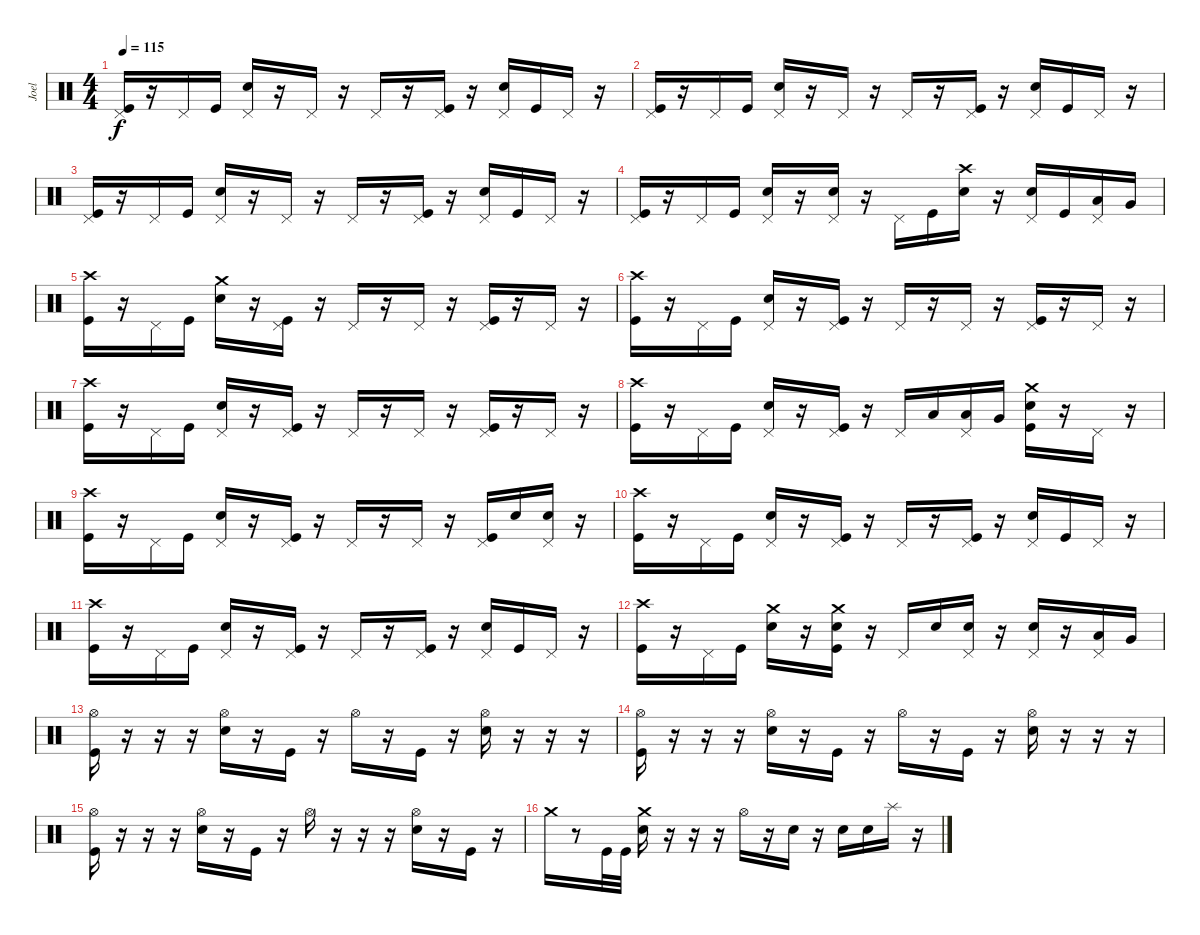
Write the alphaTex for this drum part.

\track ("Joel" "Joel") {instrument percussion}
\staff {score}
\articulation defaults
\ts (4 4)
\tempo 115
\clef neutral
\ks c
("Pedal Hi-Hat (hit)" "Kick (hit)").16{dy f} r.16 "Pedal Hi-Hat (hit)".16 "Kick (hit)".16 ("Pedal Hi-Hat (hit)" "Electric Snare (hit)").16 r.16 "Pedal Hi-Hat (hit)".16 r.16 "Pedal Hi-Hat (hit)".16 r.16 ("Pedal Hi-Hat (hit)" "Kick (hit)").16 r.16 ("Pedal Hi-Hat (hit)" "Electric Snare (hit)").16 "Kick (hit)".16 "Pedal Hi-Hat (hit)".16 r.16 |
("Pedal Hi-Hat (hit)" "Kick (hit)").16 r.16 "Pedal Hi-Hat (hit)".16 "Kick (hit)".16 ("Pedal Hi-Hat (hit)" "Electric Snare (hit)").16 r.16 "Pedal Hi-Hat (hit)".16 r.16 "Pedal Hi-Hat (hit)".16 r.16 ("Pedal Hi-Hat (hit)" "Kick (hit)").16 r.16 ("Pedal Hi-Hat (hit)" "Electric Snare (hit)").16 "Kick (hit)".16 "Pedal Hi-Hat (hit)".16 r.16 |
("Pedal Hi-Hat (hit)" "Kick (hit)").16 r.16 "Pedal Hi-Hat (hit)".16 "Kick (hit)".16 ("Pedal Hi-Hat (hit)" "Electric Snare (hit)").16 r.16 "Pedal Hi-Hat (hit)".16 r.16 "Pedal Hi-Hat (hit)".16 r.16 ("Pedal Hi-Hat (hit)" "Kick (hit)").16 r.16 ("Pedal Hi-Hat (hit)" "Electric Snare (hit)").16 "Kick (hit)".16 "Pedal Hi-Hat (hit)".16 r.16 |
("Pedal Hi-Hat (hit)" "Kick (hit)").16 r.16 "Pedal Hi-Hat (hit)".16 "Kick (hit)".16 ("Pedal Hi-Hat (hit)" "Electric Snare (hit)").16 r.16 ("Pedal Hi-Hat (hit)" "Electric Snare (hit)").16 r.16 "Pedal Hi-Hat (hit)".16 "Kick (hit)".16 ("Crash high (hit)" "Electric Snare (hit)").16 r.16 ("Pedal Hi-Hat (hit)" "Electric Snare (hit)").16 "Kick (hit)".16 ("Pedal Hi-Hat (hit)" "Low Tom (hit)").16 "Very Low Tom (hit)".16 |
("Crash high (hit)" "Kick (hit)").16 r.16 "Pedal Hi-Hat (hit)".16 "Kick (hit)".16 ("Crash medium (hit)" "Electric Snare (hit)").16 r.16 ("Pedal Hi-Hat (hit)" "Kick (hit)").16 r.16 "Pedal Hi-Hat (hit)".16 r.16 "Pedal Hi-Hat (hit)".16 r.16 ("Pedal Hi-Hat (hit)" "Kick (hit)").16 r.16 "Pedal Hi-Hat (hit)".16 r.16 |
("Crash high (hit)" "Kick (hit)").16 r.16 "Pedal Hi-Hat (hit)".16 "Kick (hit)".16 ("Pedal Hi-Hat (hit)" "Electric Snare (hit)").16 r.16 ("Pedal Hi-Hat (hit)" "Kick (hit)").16 r.16 "Pedal Hi-Hat (hit)".16 r.16 "Pedal Hi-Hat (hit)".16 r.16 ("Pedal Hi-Hat (hit)" "Kick (hit)").16 r.16 "Pedal Hi-Hat (hit)".16 r.16 |
("Crash high (hit)" "Kick (hit)").16 r.16 "Pedal Hi-Hat (hit)".16 "Kick (hit)".16 ("Pedal Hi-Hat (hit)" "Electric Snare (hit)").16 r.16 ("Pedal Hi-Hat (hit)" "Kick (hit)").16 r.16 "Pedal Hi-Hat (hit)".16 r.16 "Pedal Hi-Hat (hit)".16 r.16 ("Pedal Hi-Hat (hit)" "Kick (hit)").16 r.16 "Pedal Hi-Hat (hit)".16 r.16 |
("Crash high (hit)" "Kick (hit)").16 r.16 "Pedal Hi-Hat (hit)".16 "Kick (hit)".16 ("Pedal Hi-Hat (hit)" "Electric Snare (hit)").16 r.16 ("Pedal Hi-Hat (hit)" "Kick (hit)").16 r.16 "Pedal Hi-Hat (hit)".16 "Low Tom (hit)".16 ("Pedal Hi-Hat (hit)" "Low Tom (hit)").16 "Very Low Tom (hit)".16 ("Crash medium (hit)" "Electric Snare (hit)" "Kick (hit)").16 r.16 "Pedal Hi-Hat (hit)".16 r.16 |
("Crash high (hit)" "Kick (hit)").16 r.16 "Pedal Hi-Hat (hit)".16 "Kick (hit)".16 ("Pedal Hi-Hat (hit)" "Electric Snare (hit)").16 r.16 ("Pedal Hi-Hat (hit)" "Kick (hit)").16 r.16 "Pedal Hi-Hat (hit)".16 r.16 "Pedal Hi-Hat (hit)".16 r.16 ("Pedal Hi-Hat (hit)" "Kick (hit)").16 "Electric Snare (hit)".16 ("Pedal Hi-Hat (hit)" "Electric Snare (hit)").16 r.16 |
("Crash high (hit)" "Kick (hit)").16 r.16 "Pedal Hi-Hat (hit)".16 "Kick (hit)".16 ("Pedal Hi-Hat (hit)" "Electric Snare (hit)").16 r.16 ("Pedal Hi-Hat (hit)" "Kick (hit)").16 r.16 "Pedal Hi-Hat (hit)".16 r.16 ("Pedal Hi-Hat (hit)" "Kick (hit)").16 r.16 ("Pedal Hi-Hat (hit)" "Electric Snare (hit)").16 "Kick (hit)".16 "Pedal Hi-Hat (hit)".16 r.16 |
("Crash high (hit)" "Kick (hit)").16 r.16 "Pedal Hi-Hat (hit)".16 "Kick (hit)".16 ("Pedal Hi-Hat (hit)" "Electric Snare (hit)").16 r.16 ("Pedal Hi-Hat (hit)" "Kick (hit)").16 r.16 "Pedal Hi-Hat (hit)".16 r.16 ("Pedal Hi-Hat (hit)" "Kick (hit)").16 r.16 ("Pedal Hi-Hat (hit)" "Electric Snare (hit)").16 "Kick (hit)".16 "Pedal Hi-Hat (hit)".16 r.16 |
("Crash high (hit)" "Kick (hit)").16 r.16 "Pedal Hi-Hat (hit)".16 "Kick (hit)".16 ("Crash medium (hit)" "Electric Snare (hit)").16 r.16 ("Crash medium (hit)" "Electric Snare (hit)" "Kick (hit)").16 r.16 "Pedal Hi-Hat (hit)".16 "Electric Snare (hit)".16 ("Pedal Hi-Hat (hit)" "Electric Snare (hit)").16 r.16 ("Pedal Hi-Hat (hit)" "Electric Snare (hit)").16 r.16 ("Pedal Hi-Hat (hit)" "Low Tom (hit)").16 "Very Low Tom (hit)".16 |
("Hi-Hat (open)" "Kick (hit)").16 r.16 r.16 r.16 ("Hi-Hat (open)" "Electric Snare (hit)").16 r.16 "Kick (hit)".16 r.16 "Hi-Hat (open)".16 r.16 "Kick (hit)".16 r.16 ("Hi-Hat (open)" "Electric Snare (hit)").16 r.16 r.16 r.16 |
("Hi-Hat (open)" "Kick (hit)").16 r.16 r.16 r.16 ("Hi-Hat (open)" "Electric Snare (hit)").16 r.16 "Kick (hit)".16 r.16 "Hi-Hat (open)".16 r.16 "Kick (hit)".16 r.16 ("Hi-Hat (open)" "Electric Snare (hit)").16 r.16 r.16 r.16 |
("Hi-Hat (open)" "Kick (hit)").16 r.16 r.16 r.16 ("Hi-Hat (open)" "Electric Snare (hit)").16 r.16 "Kick (hit)".16 r.16 "Hi-Hat (open)".16 r.16 r.16 r.16 ("Hi-Hat (open)" "Electric Snare (hit)").16 r.16 "Kick (hit)".16 r.16 |
"Crash medium (hit)".16 r.8 "Kick (hit)".32 "Kick (hit)".32 ("Crash medium (hit)" "Electric Snare (hit)").16 r.16 r.16 r.16 "Hi-Hat (open)".16 r.16 "Electric Snare (hit)".16 r.16 "Electric Snare (hit)".16 "Electric Snare (hit)".16 "Splash (hit)".16 r.16
